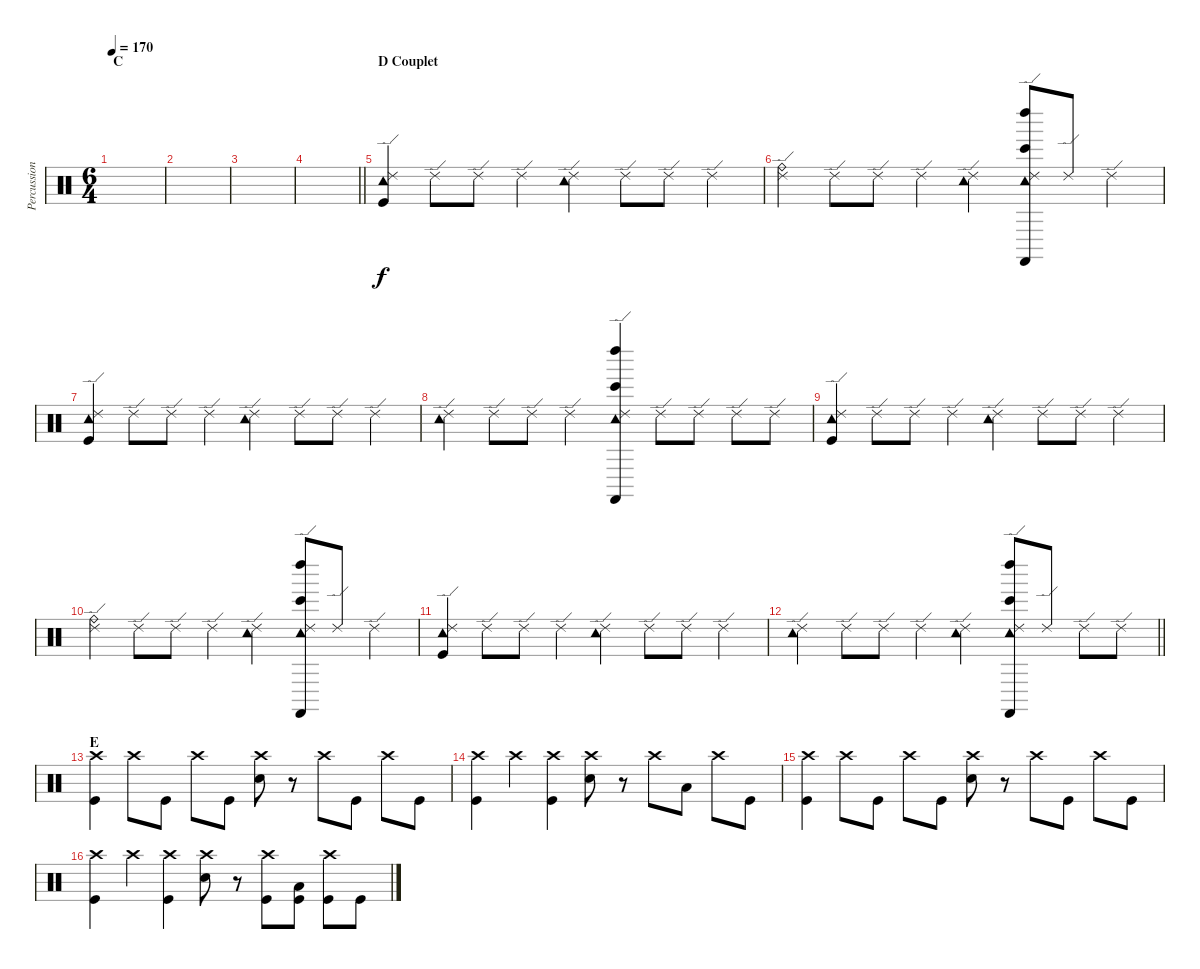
\track ("Percussions" "Percussion") {instrument percussion}
\staff {score}
\articulation defaults
\ts (6 4)
\section ("" "C")
\tempo 170
\clef neutral
\ks c
|
|
|
\barLineRight lightlight
|
\section ("" "D Couplet")
("Tambourine (hit)" "Ride (edge) 2" "Kick (hit)").4 "Ride (edge) 2".8 "Ride (edge) 2".8 "Ride (edge) 2".4 ("Tambourine (hit)" "Ride (edge) 2").4 "Ride (edge) 2".8 "Ride (edge) 2".8 "Ride (edge) 2".4 |
("Ride (bell)" "Ride (edge) 2").4 "Ride (edge) 2".8 "Ride (edge) 2".8 "Ride (edge) 2".4 ("Ride (edge) 2" "Tambourine (hit)").4 ("Bongo High (hit)" "Left Maraca (hit)" "Ride (edge) 2" "Tambourine (hit)" "Castanets (hit)").8 "Ride (edge) 2".8 "Ride (edge) 2".4 |
("Tambourine (hit)" "Ride (edge) 2" "Kick (hit)").4 "Ride (edge) 2".8 "Ride (edge) 2".8 "Ride (edge) 2".4 ("Tambourine (hit)" "Ride (edge) 2").4 "Ride (edge) 2".8 "Ride (edge) 2".8 "Ride (edge) 2".4 |
("Tambourine (hit)" "Ride (edge) 2").4 "Ride (edge) 2".8 "Ride (edge) 2".8 "Ride (edge) 2".4 ("Bongo High (hit)" "Left Maraca (hit)" "Ride (edge) 2" "Tambourine (hit)" "Castanets (hit)").4 "Ride (edge) 2".8 "Ride (edge) 2".8 "Ride (edge) 2".8 "Ride (edge) 2".8 |
("Tambourine (hit)" "Ride (edge) 2" "Kick (hit)").4 "Ride (edge) 2".8 "Ride (edge) 2".8 "Ride (edge) 2".4 ("Tambourine (hit)" "Ride (edge) 2").4 "Ride (edge) 2".8 "Ride (edge) 2".8 "Ride (edge) 2".4 |
("Ride (bell)" "Ride (edge) 2").4 "Ride (edge) 2".8 "Ride (edge) 2".8 "Ride (edge) 2".4 ("Tambourine (hit)" "Ride (edge) 2").4 ("Bongo High (hit)" "Left Maraca (hit)" "Ride (edge) 2" "Tambourine (hit)" "Castanets (hit)").8 "Ride (edge) 2".8 "Ride (edge) 2".4 |
("Tambourine (hit)" "Ride (edge) 2" "Kick (hit)").4 "Ride (edge) 2".8 "Ride (edge) 2".8 "Ride (edge) 2".4 ("Tambourine (hit)" "Ride (edge) 2").4 "Ride (edge) 2".8 "Ride (edge) 2".8 "Ride (edge) 2".4 |
\barLineRight lightlight
("Tambourine (hit)" "Ride (edge) 2").4 "Ride (edge) 2".8 "Ride (edge) 2".8 "Ride (edge) 2".4 ("Tambourine (hit)" "Ride (edge) 2").4 ("Bongo High (hit)" "Left Maraca (hit)" "Ride (edge) 2" "Tambourine (hit)" "Castanets (hit)").8 "Ride (edge) 2".8 "Ride (edge) 2".8 "Ride (edge) 2".8 |
\section ("" "E")
("Crash high (hit)" "Kick (hit)").4 "Crash high (hit)".8 "Kick (hit)".8 "Crash high (hit)".8 "Kick (hit)".8 ("Crash high (hit)" "Snare (hit) 2").8 r.8 "Crash high (hit)".8 "Kick (hit)".8 "Crash high (hit)".8 "Kick (hit)".8 |
("Crash high (hit)" "Kick (hit)").4 "Crash high (hit)".4 ("Crash high (hit)" "Kick (hit)").4 ("Crash high (hit)" "Snare (hit) 2").8 r.8 "Crash high (hit)".8 "Low Tom (hit)".8 "Crash high (hit)".8 "Kick (hit)".8 |
("Crash high (hit)" "Kick (hit)").4 "Crash high (hit)".8 "Kick (hit)".8 "Crash high (hit)".8 "Kick (hit)".8 ("Crash high (hit)" "Snare (hit) 2").8 r.8 "Crash high (hit)".8 "Kick (hit)".8 "Crash high (hit)".8 "Kick (hit)".8 |
("Crash high (hit)" "Kick (hit)").4 "Crash high (hit)".4 ("Crash high (hit)" "Kick (hit)").4 ("Crash high (hit)" "Snare (hit) 2").8 r.8 ("Crash high (hit)" "Kick (hit)").8 ("Low Tom (hit)" "Kick (hit)").8 ("Crash high (hit)" "Kick (hit)").8 "Kick (hit)".8
